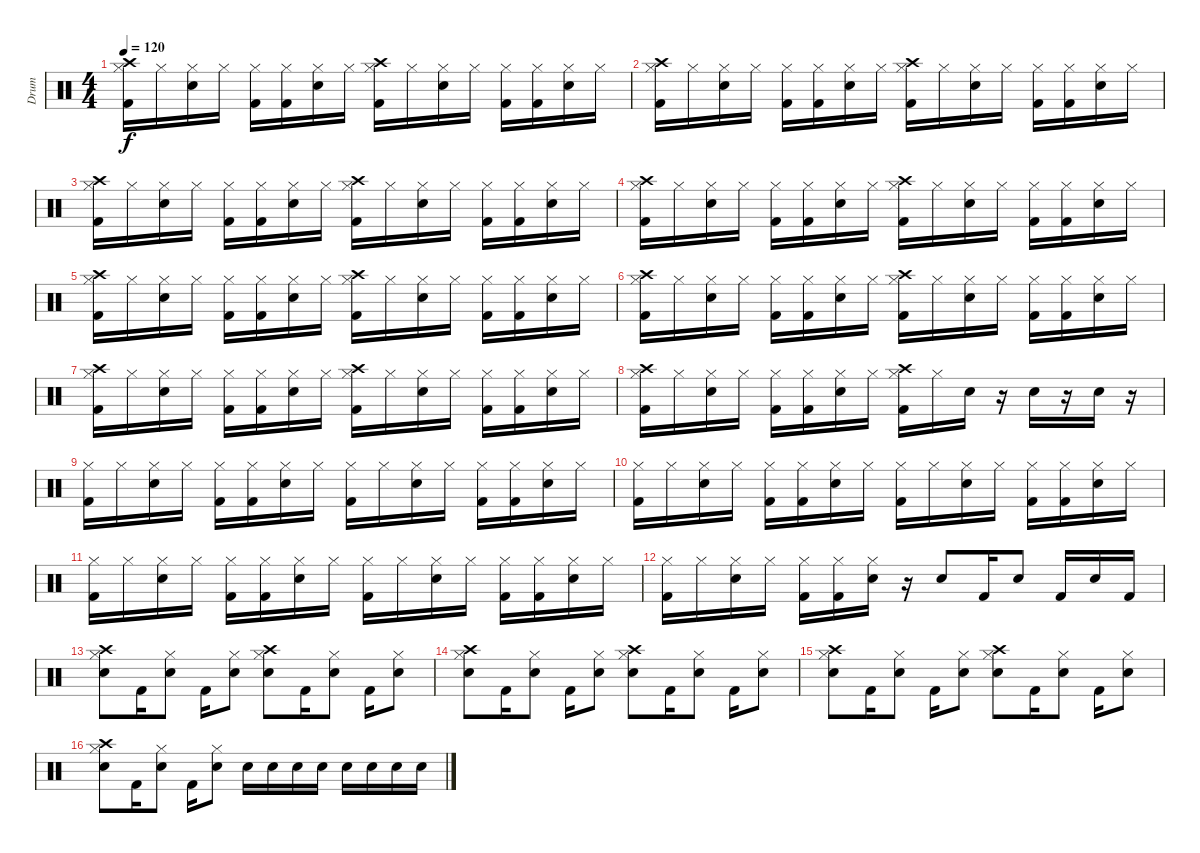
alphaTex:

\track ("Drum" "Drum") {instrument percussion}
\staff {score}
\articulation defaults
\ts (4 4)
\tempo 120
\clef neutral
\ks c
("Kick (hit) 2" "Hi-Hat (closed)" "Crash high (hit)").16{dy f} "Hi-Hat (closed)".16 ("Electric Snare (hit)" "Hi-Hat (closed)").16 "Hi-Hat (closed)".16 ("Kick (hit) 2" "Hi-Hat (closed)").16 ("Kick (hit) 2" "Hi-Hat (closed)").16 ("Electric Snare (hit)" "Hi-Hat (closed)").16 "Hi-Hat (closed)".16 ("Kick (hit) 2" "Hi-Hat (closed)" "Crash high (hit)").16 "Hi-Hat (closed)".16 ("Electric Snare (hit)" "Hi-Hat (closed)").16 "Hi-Hat (closed)".16 ("Kick (hit) 2" "Hi-Hat (closed)").16 ("Kick (hit) 2" "Hi-Hat (closed)").16 ("Electric Snare (hit)" "Hi-Hat (closed)").16 "Hi-Hat (closed)".16 |
("Kick (hit) 2" "Hi-Hat (closed)" "Crash high (hit)").16 "Hi-Hat (closed)".16 ("Electric Snare (hit)" "Hi-Hat (closed)").16 "Hi-Hat (closed)".16 ("Kick (hit) 2" "Hi-Hat (closed)").16 ("Kick (hit) 2" "Hi-Hat (closed)").16 ("Electric Snare (hit)" "Hi-Hat (closed)").16 "Hi-Hat (closed)".16 ("Kick (hit) 2" "Hi-Hat (closed)" "Crash high (hit)").16 "Hi-Hat (closed)".16 ("Electric Snare (hit)" "Hi-Hat (closed)").16 "Hi-Hat (closed)".16 ("Kick (hit) 2" "Hi-Hat (closed)").16 ("Kick (hit) 2" "Hi-Hat (closed)").16 ("Electric Snare (hit)" "Hi-Hat (closed)").16 "Hi-Hat (closed)".16 |
("Kick (hit) 2" "Hi-Hat (closed)" "Crash high (hit)").16 "Hi-Hat (closed)".16 ("Electric Snare (hit)" "Hi-Hat (closed)").16 "Hi-Hat (closed)".16 ("Kick (hit) 2" "Hi-Hat (closed)").16 ("Kick (hit) 2" "Hi-Hat (closed)").16 ("Electric Snare (hit)" "Hi-Hat (closed)").16 "Hi-Hat (closed)".16 ("Kick (hit) 2" "Hi-Hat (closed)" "Crash high (hit)").16 "Hi-Hat (closed)".16 ("Electric Snare (hit)" "Hi-Hat (closed)").16 "Hi-Hat (closed)".16 ("Kick (hit) 2" "Hi-Hat (closed)").16 ("Kick (hit) 2" "Hi-Hat (closed)").16 ("Electric Snare (hit)" "Hi-Hat (closed)").16 "Hi-Hat (closed)".16 |
("Kick (hit) 2" "Hi-Hat (closed)" "Crash high (hit)").16 "Hi-Hat (closed)".16 ("Electric Snare (hit)" "Hi-Hat (closed)").16 "Hi-Hat (closed)".16 ("Kick (hit) 2" "Hi-Hat (closed)").16 ("Kick (hit) 2" "Hi-Hat (closed)").16 ("Electric Snare (hit)" "Hi-Hat (closed)").16 "Hi-Hat (closed)".16 ("Kick (hit) 2" "Hi-Hat (closed)" "Crash high (hit)").16 "Hi-Hat (closed)".16 ("Electric Snare (hit)" "Hi-Hat (closed)").16 "Hi-Hat (closed)".16 ("Kick (hit) 2" "Hi-Hat (closed)").16 ("Kick (hit) 2" "Hi-Hat (closed)").16 ("Electric Snare (hit)" "Hi-Hat (closed)").16 "Hi-Hat (closed)".16 |
("Kick (hit) 2" "Hi-Hat (closed)" "Crash high (hit)").16 "Hi-Hat (closed)".16 ("Electric Snare (hit)" "Hi-Hat (closed)").16 "Hi-Hat (closed)".16 ("Kick (hit) 2" "Hi-Hat (closed)").16 ("Kick (hit) 2" "Hi-Hat (closed)").16 ("Electric Snare (hit)" "Hi-Hat (closed)").16 "Hi-Hat (closed)".16 ("Kick (hit) 2" "Hi-Hat (closed)" "Crash high (hit)").16 "Hi-Hat (closed)".16 ("Electric Snare (hit)" "Hi-Hat (closed)").16 "Hi-Hat (closed)".16 ("Kick (hit) 2" "Hi-Hat (closed)").16 ("Kick (hit) 2" "Hi-Hat (closed)").16 ("Electric Snare (hit)" "Hi-Hat (closed)").16 "Hi-Hat (closed)".16 |
("Kick (hit) 2" "Hi-Hat (closed)" "Crash high (hit)").16 "Hi-Hat (closed)".16 ("Electric Snare (hit)" "Hi-Hat (closed)").16 "Hi-Hat (closed)".16 ("Kick (hit) 2" "Hi-Hat (closed)").16 ("Kick (hit) 2" "Hi-Hat (closed)").16 ("Electric Snare (hit)" "Hi-Hat (closed)").16 "Hi-Hat (closed)".16 ("Kick (hit) 2" "Hi-Hat (closed)" "Crash high (hit)").16 "Hi-Hat (closed)".16 ("Electric Snare (hit)" "Hi-Hat (closed)").16 "Hi-Hat (closed)".16 ("Kick (hit) 2" "Hi-Hat (closed)").16 ("Kick (hit) 2" "Hi-Hat (closed)").16 ("Electric Snare (hit)" "Hi-Hat (closed)").16 "Hi-Hat (closed)".16 |
("Kick (hit) 2" "Hi-Hat (closed)" "Crash high (hit)").16 "Hi-Hat (closed)".16 ("Electric Snare (hit)" "Hi-Hat (closed)").16 "Hi-Hat (closed)".16 ("Kick (hit) 2" "Hi-Hat (closed)").16 ("Kick (hit) 2" "Hi-Hat (closed)").16 ("Electric Snare (hit)" "Hi-Hat (closed)").16 "Hi-Hat (closed)".16 ("Kick (hit) 2" "Hi-Hat (closed)" "Crash high (hit)").16 "Hi-Hat (closed)".16 ("Electric Snare (hit)" "Hi-Hat (closed)").16 "Hi-Hat (closed)".16 ("Kick (hit) 2" "Hi-Hat (closed)").16 ("Kick (hit) 2" "Hi-Hat (closed)").16 ("Electric Snare (hit)" "Hi-Hat (closed)").16 "Hi-Hat (closed)".16 |
("Kick (hit) 2" "Hi-Hat (closed)" "Crash high (hit)").16 "Hi-Hat (closed)".16 ("Electric Snare (hit)" "Hi-Hat (closed)").16 "Hi-Hat (closed)".16 ("Kick (hit) 2" "Hi-Hat (closed)").16 ("Kick (hit) 2" "Hi-Hat (closed)").16 ("Electric Snare (hit)" "Hi-Hat (closed)").16 "Hi-Hat (closed)".16 ("Kick (hit) 2" "Hi-Hat (closed)" "Crash high (hit)").16 "Hi-Hat (closed)".16 "Electric Snare (hit)".16 r.16 "Electric Snare (hit)".16 r.16 "Electric Snare (hit)".16 r.16 |
("Kick (hit) 2" "Hi-Hat (closed)").16 "Hi-Hat (closed)".16 ("Electric Snare (hit)" "Hi-Hat (closed)").16 "Hi-Hat (closed)".16 ("Kick (hit) 2" "Hi-Hat (closed)").16 ("Kick (hit) 2" "Hi-Hat (closed)").16 ("Electric Snare (hit)" "Hi-Hat (closed)").16 "Hi-Hat (closed)".16 ("Kick (hit) 2" "Hi-Hat (closed)").16 "Hi-Hat (closed)".16 ("Electric Snare (hit)" "Hi-Hat (closed)").16 "Hi-Hat (closed)".16 ("Kick (hit) 2" "Hi-Hat (closed)").16 ("Kick (hit) 2" "Hi-Hat (closed)").16 ("Electric Snare (hit)" "Hi-Hat (closed)").16 "Hi-Hat (closed)".16 |
("Kick (hit) 2" "Hi-Hat (closed)").16 "Hi-Hat (closed)".16 ("Electric Snare (hit)" "Hi-Hat (closed)").16 "Hi-Hat (closed)".16 ("Kick (hit) 2" "Hi-Hat (closed)").16 ("Kick (hit) 2" "Hi-Hat (closed)").16 ("Electric Snare (hit)" "Hi-Hat (closed)").16 "Hi-Hat (closed)".16 ("Kick (hit) 2" "Hi-Hat (closed)").16 "Hi-Hat (closed)".16 ("Electric Snare (hit)" "Hi-Hat (closed)").16 "Hi-Hat (closed)".16 ("Kick (hit) 2" "Hi-Hat (closed)").16 ("Kick (hit) 2" "Hi-Hat (closed)").16 ("Electric Snare (hit)" "Hi-Hat (closed)").16 "Hi-Hat (closed)".16 |
("Kick (hit) 2" "Hi-Hat (closed)").16 "Hi-Hat (closed)".16 ("Electric Snare (hit)" "Hi-Hat (closed)").16 "Hi-Hat (closed)".16 ("Kick (hit) 2" "Hi-Hat (closed)").16 ("Kick (hit) 2" "Hi-Hat (closed)").16 ("Electric Snare (hit)" "Hi-Hat (closed)").16 "Hi-Hat (closed)".16 ("Kick (hit) 2" "Hi-Hat (closed)").16 "Hi-Hat (closed)".16 ("Electric Snare (hit)" "Hi-Hat (closed)").16 "Hi-Hat (closed)".16 ("Kick (hit) 2" "Hi-Hat (closed)").16 ("Kick (hit) 2" "Hi-Hat (closed)").16 ("Electric Snare (hit)" "Hi-Hat (closed)").16 "Hi-Hat (closed)".16 |
("Kick (hit) 2" "Hi-Hat (closed)").16 "Hi-Hat (closed)".16 ("Electric Snare (hit)" "Hi-Hat (closed)").16 "Hi-Hat (closed)".16 ("Kick (hit) 2" "Hi-Hat (closed)").16 ("Kick (hit) 2" "Hi-Hat (closed)").16 ("Electric Snare (hit)" "Hi-Hat (closed)").16 r.16 "Electric Snare (hit)".8 "Kick (hit) 2".16 "Electric Snare (hit)".8 "Kick (hit) 2".16 "Electric Snare (hit)".16 "Kick (hit) 2".16 |
("Electric Snare (hit)" "Hi-Hat (closed)" "Crash high (hit)").8 "Kick (hit) 2".16 ("Electric Snare (hit)" "Hi-Hat (closed)").8 "Kick (hit) 2".16 ("Electric Snare (hit)" "Hi-Hat (closed)").8 ("Electric Snare (hit)" "Hi-Hat (closed)" "Crash high (hit)").8 "Kick (hit) 2".16 ("Electric Snare (hit)" "Hi-Hat (closed)").8 "Kick (hit) 2".16 ("Electric Snare (hit)" "Hi-Hat (closed)").8 |
("Electric Snare (hit)" "Hi-Hat (closed)" "Crash high (hit)").8 "Kick (hit) 2".16 ("Electric Snare (hit)" "Hi-Hat (closed)").8 "Kick (hit) 2".16 ("Electric Snare (hit)" "Hi-Hat (closed)").8 ("Electric Snare (hit)" "Hi-Hat (closed)" "Crash high (hit)").8 "Kick (hit) 2".16 ("Electric Snare (hit)" "Hi-Hat (closed)").8 "Kick (hit) 2".16 ("Electric Snare (hit)" "Hi-Hat (closed)").8 |
("Electric Snare (hit)" "Hi-Hat (closed)" "Crash high (hit)").8 "Kick (hit) 2".16 ("Electric Snare (hit)" "Hi-Hat (closed)").8 "Kick (hit) 2".16 ("Electric Snare (hit)" "Hi-Hat (closed)").8 ("Electric Snare (hit)" "Hi-Hat (closed)" "Crash high (hit)").8 "Kick (hit) 2".16 ("Electric Snare (hit)" "Hi-Hat (closed)").8 "Kick (hit) 2".16 ("Electric Snare (hit)" "Hi-Hat (closed)").8 |
("Electric Snare (hit)" "Hi-Hat (closed)" "Crash high (hit)").8 "Kick (hit) 2".16 ("Electric Snare (hit)" "Hi-Hat (closed)").8 "Kick (hit) 2".16 ("Electric Snare (hit)" "Hi-Hat (closed)").8 "Electric Snare (hit)".16 "Electric Snare (hit)".16 "Electric Snare (hit)".16 "Electric Snare (hit)".16 "Electric Snare (hit)".16 "Electric Snare (hit)".16 "Electric Snare (hit)".16 "Electric Snare (hit)".16
